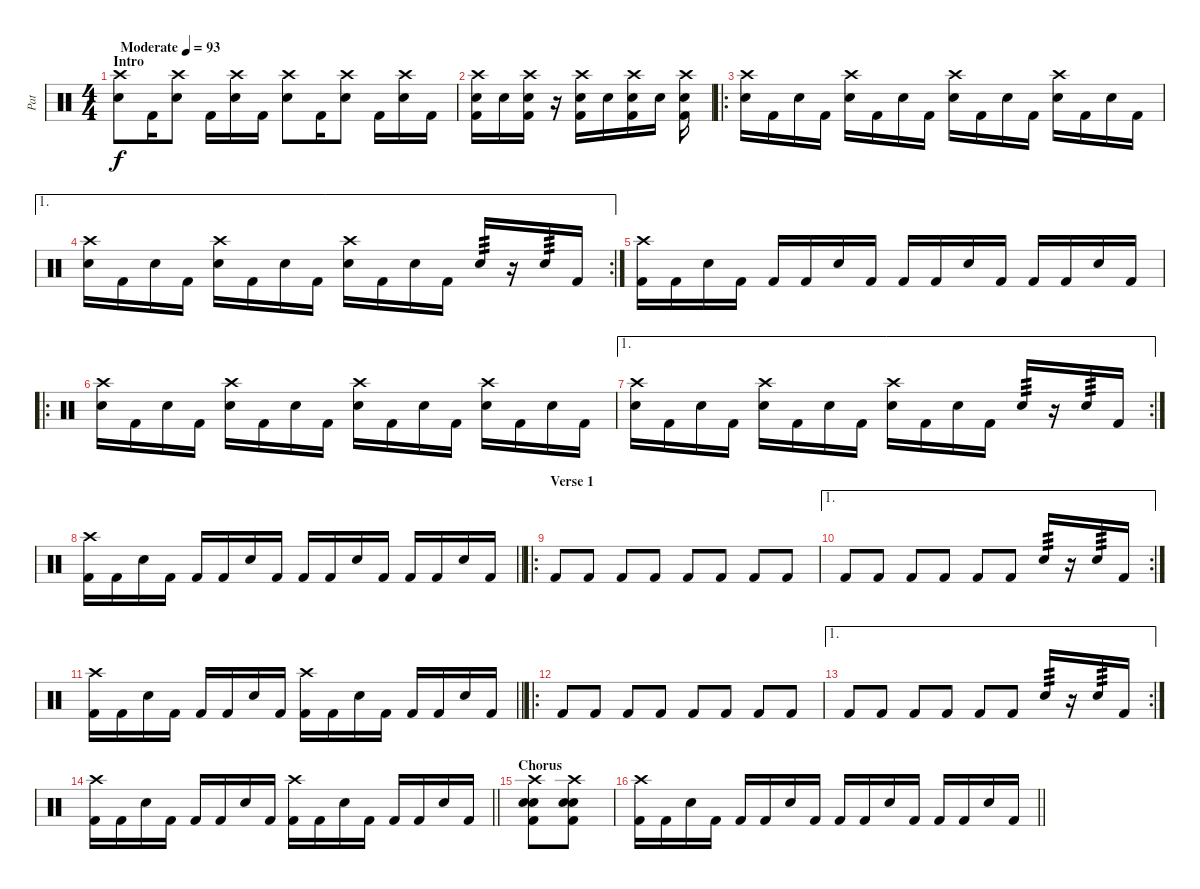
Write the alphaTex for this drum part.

\track ("Pat" "Pat") {instrument percussion}
\staff {score}
\articulation defaults
\ts (4 4)
\section ("" "Intro")
\tempo (93 "Moderate")
\clef neutral
\ks c
("Crash high (hit)" "Electric Snare (hit)").8{dy f} "Kick (hit) 2".16 ("Crash high (hit)" "Electric Snare (hit)").8 "Kick (hit) 2".16 ("Crash high (hit)" "Electric Snare (hit)").16 "Kick (hit) 2".16 ("Crash high (hit)" "Electric Snare (hit)").8 "Kick (hit) 2".16 ("Crash high (hit)" "Electric Snare (hit)").8 "Kick (hit) 2".16 ("Crash high (hit)" "Electric Snare (hit)").16 "Kick (hit) 2".16 |
("Crash high (hit)" "Electric Snare (hit)" "Kick (hit) 2").16 "Electric Snare (hit)".16 ("Crash high (hit)" "Electric Snare (hit)" "Kick (hit) 2").16 r.16 ("Crash high (hit)" "Electric Snare (hit)" "Kick (hit) 2").16 "Electric Snare (hit)".16 ("Crash high (hit)" "Electric Snare (hit)" "Kick (hit) 2").16 "Electric Snare (hit)".16 ("Crash high (hit)" "Electric Snare (hit)" "Kick (hit) 2").16 |
\ro
("Crash high (hit)" "Electric Snare (hit)").16 "Kick (hit) 2".16 "Electric Snare (hit)".16 "Kick (hit) 2".16 ("Crash high (hit)" "Electric Snare (hit)").16 "Kick (hit) 2".16 "Electric Snare (hit)".16 "Kick (hit) 2".16 ("Crash high (hit)" "Electric Snare (hit)").16 "Kick (hit) 2".16 "Electric Snare (hit)".16 "Kick (hit) 2".16 ("Crash high (hit)" "Electric Snare (hit)").16 "Kick (hit) 2".16 "Electric Snare (hit)".16 "Kick (hit) 2".16 |
\ae 1
\rc 2
("Crash high (hit)" "Electric Snare (hit)").16 "Kick (hit) 2".16 "Electric Snare (hit)".16 "Kick (hit) 2".16 ("Crash high (hit)" "Electric Snare (hit)").16 "Kick (hit) 2".16 "Electric Snare (hit)".16 "Kick (hit) 2".16 ("Crash high (hit)" "Electric Snare (hit)").16 "Kick (hit) 2".16 "Electric Snare (hit)".16 "Kick (hit) 2".16 "Electric Snare (hit)".16{tp 3} r.16 "Electric Snare (hit)".16{tp 3} "Kick (hit) 2".16 |
("Crash high (hit)" "Kick (hit) 2").16 "Kick (hit) 2".16 "Electric Snare (hit)".16 "Kick (hit) 2".16 "Kick (hit) 2".16 "Kick (hit) 2".16 "Electric Snare (hit)".16 "Kick (hit) 2".16 "Kick (hit) 2".16 "Kick (hit) 2".16 "Electric Snare (hit)".16 "Kick (hit) 2".16 "Kick (hit) 2".16 "Kick (hit) 2".16 "Electric Snare (hit)".16 "Kick (hit) 2".16 |
\ro
("Crash high (hit)" "Electric Snare (hit)").16 "Kick (hit) 2".16 "Electric Snare (hit)".16 "Kick (hit) 2".16 ("Crash high (hit)" "Electric Snare (hit)").16 "Kick (hit) 2".16 "Electric Snare (hit)".16 "Kick (hit) 2".16 ("Crash high (hit)" "Electric Snare (hit)").16 "Kick (hit) 2".16 "Electric Snare (hit)".16 "Kick (hit) 2".16 ("Crash high (hit)" "Electric Snare (hit)").16 "Kick (hit) 2".16 "Electric Snare (hit)".16 "Kick (hit) 2".16 |
\ae 1
\rc 2
("Crash high (hit)" "Electric Snare (hit)").16 "Kick (hit) 2".16 "Electric Snare (hit)".16 "Kick (hit) 2".16 ("Crash high (hit)" "Electric Snare (hit)").16 "Kick (hit) 2".16 "Electric Snare (hit)".16 "Kick (hit) 2".16 ("Crash high (hit)" "Electric Snare (hit)").16 "Kick (hit) 2".16 "Electric Snare (hit)".16 "Kick (hit) 2".16 "Electric Snare (hit)".16{tp 3} r.16 "Electric Snare (hit)".16{tp 3} "Kick (hit) 2".16 |
\barLineRight lightlight
("Crash high (hit)" "Kick (hit) 2").16 "Kick (hit) 2".16 "Electric Snare (hit)".16 "Kick (hit) 2".16 "Kick (hit) 2".16 "Kick (hit) 2".16 "Electric Snare (hit)".16 "Kick (hit) 2".16 "Kick (hit) 2".16 "Kick (hit) 2".16 "Electric Snare (hit)".16 "Kick (hit) 2".16 "Kick (hit) 2".16 "Kick (hit) 2".16 "Electric Snare (hit)".16 "Kick (hit) 2".16 |
\ro
\section ("" "Verse 1")
"Kick (hit) 2".8 "Kick (hit) 2".8 "Kick (hit) 2".8 "Kick (hit) 2".8 "Kick (hit) 2".8 "Kick (hit) 2".8 "Kick (hit) 2".8 "Kick (hit) 2".8 |
\ae 1
\rc 2 "Kick (hit) 2".8 "Kick (hit) 2".8 "Kick (hit) 2".8 "Kick (hit) 2".8 "Kick (hit) 2".8 "Kick (hit) 2".8 "Electric Snare (hit)".16{tp 3}
r.16 "Electric Snare (hit)".16{tp 3} "Kick (hit) 2".16 |
\barLineRight lightlight
("Crash high (hit)" "Kick (hit) 2").16 "Kick (hit) 2".16 "Electric Snare (hit)".16 "Kick (hit) 2".16 "Kick (hit) 2".16 "Kick (hit) 2".16 "Electric Snare (hit)".16 "Kick (hit) 2".16 ("Crash high (hit)" "Kick (hit) 2").16 "Kick (hit) 2".16 "Electric Snare (hit)".16 "Kick (hit) 2".16 "Kick (hit) 2".16 "Kick (hit) 2".16 "Electric Snare (hit)".16 "Kick (hit) 2".16 |
\ro "Kick (hit) 2".8 "Kick (hit) 2".8 "Kick (hit) 2".8 "Kick (hit) 2".8 "Kick (hit) 2".8 "Kick (hit) 2".8 "Kick (hit) 2".8 "Kick (hit) 2".8
|
\ae 1
\rc 2 "Kick (hit) 2".8 "Kick (hit) 2".8 "Kick (hit) 2".8 "Kick (hit) 2".8 "Kick (hit) 2".8 "Kick (hit) 2".8 "Electric Snare (hit)".16{tp 3}
r.16 "Electric Snare (hit)".16{tp 3} "Kick (hit) 2".16 |
\barLineRight lightlight
("Crash high (hit)" "Kick (hit) 2").16 "Kick (hit) 2".16 "Electric Snare (hit)".16 "Kick (hit) 2".16 "Kick (hit) 2".16 "Kick (hit) 2".16 "Electric Snare (hit)".16 "Kick (hit) 2".16 ("Crash high (hit)" "Kick (hit) 2").16 "Kick (hit) 2".16 "Electric Snare (hit)".16 "Kick (hit) 2".16 "Kick (hit) 2".16 "Kick (hit) 2".16 "Electric Snare (hit)".16 "Kick (hit) 2".16 |
\section ("" "Chorus")
("Electric Snare (hit)" "Crash high (hit)" "Kick (hit) 2" "Electric Snare (hit)").8 ("Electric Snare (hit)" "Crash high (hit)" "Kick (hit) 2" "Electric Snare (hit)").8 |
\barLineRight lightlight
("Crash high (hit)" "Kick (hit) 2").16 "Kick (hit) 2".16 "Electric Snare (hit)".16 "Kick (hit) 2".16 "Kick (hit) 2".16 "Kick (hit) 2".16 "Electric Snare (hit)".16 "Kick (hit) 2".16 "Kick (hit) 2".16 "Kick (hit) 2".16 "Electric Snare (hit)".16 "Kick (hit) 2".16 "Kick (hit) 2".16 "Kick (hit) 2".16 "Electric Snare (hit)".16 "Kick (hit) 2".16
